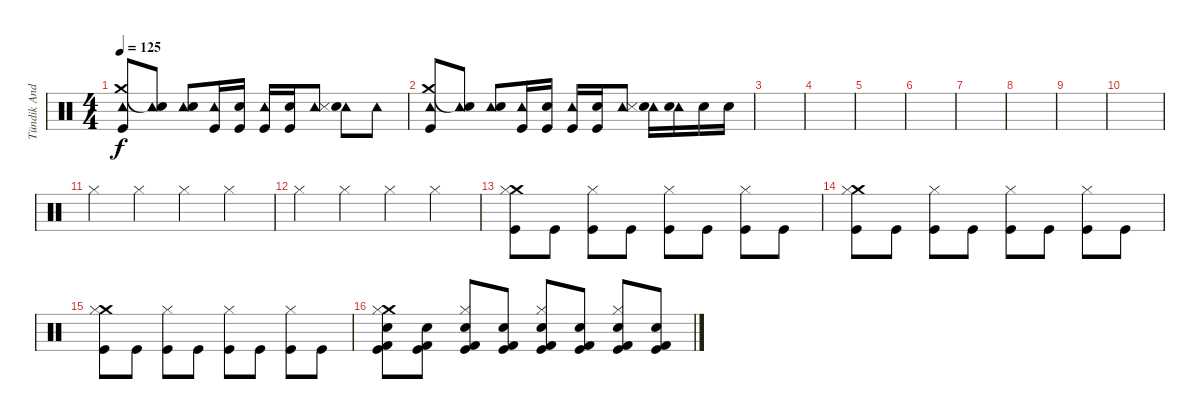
\track ("Tündik András - Dob" "Tündik And") {instrument percussion}
\staff {score}
\articulation defaults
\ts (4 4)
\tempo 125
\clef neutral
\ks c
("Tambourine (hit)" "Crash medium (hit)" "Kick (hit)").8{dy f} ("Tambourine (hit)" "Snare (hit)"{t}).8 ("Tambourine (hit)" "Snare (hit) 2").8 ("Tambourine (hit)" "Kick (hit)").16 ("Snare (hit) 2" "Kick (hit)").16 ("Tambourine (hit)" "Kick (hit)").16 ("Snare (hit) 2" "Kick (hit)").16 ("Tambourine (hit)" "Snare (side stick) 3").8 ("Tambourine (hit)" "Snare (hit) 2").8 "Tambourine (hit)".8 |
("Tambourine (hit)" "Crash medium (hit)" "Kick (hit)").8 ("Tambourine (hit)" "Snare (hit)"{t}).8 ("Tambourine (hit)" "Snare (hit) 2").8 ("Tambourine (hit)" "Kick (hit)").16 ("Snare (hit) 2" "Kick (hit)").16 ("Tambourine (hit)" "Kick (hit)").16 ("Snare (hit) 2" "Kick (hit)").16 ("Tambourine (hit)" "Snare (side stick) 3").8 ("Tambourine (hit)" "Snare (hit) 2").16 ("Tambourine (hit)" "Snare (hit) 2").16 "Snare (hit) 2".16 "Snare (hit) 2".16 |
|
|
|
|
|
|
|
|
"Hi-Hat (closed)".4 "Hi-Hat (closed)".4 "Hi-Hat (closed)".4 "Hi-Hat (closed)".4 |
"Hi-Hat (closed)".4 "Hi-Hat (closed)".4 "Hi-Hat (closed)".4 "Hi-Hat (closed)".4 |
("Crash medium (hit)" "Hi-Hat (closed)" "Kick (hit)").8 "Kick (hit)".8 ("Hi-Hat (closed)" "Kick (hit)").8 "Kick (hit)".8 ("Hi-Hat (closed)" "Kick (hit)").8 "Kick (hit)".8 ("Hi-Hat (closed)" "Kick (hit)").8 "Kick (hit)".8 |
("Crash medium (hit)" "Hi-Hat (closed)" "Kick (hit)").8 "Kick (hit)".8 ("Hi-Hat (closed)" "Kick (hit)").8 "Kick (hit)".8 ("Hi-Hat (closed)" "Kick (hit)").8 "Kick (hit)".8 ("Hi-Hat (closed)" "Kick (hit)").8 "Kick (hit)".8 |
("Crash medium (hit)" "Hi-Hat (closed)" "Kick (hit)").8 "Kick (hit)".8 ("Hi-Hat (closed)" "Kick (hit)").8 "Kick (hit)".8 ("Hi-Hat (closed)" "Kick (hit)").8 "Kick (hit)".8 ("Hi-Hat (closed)" "Kick (hit)").8 "Kick (hit)".8 |
("Crash medium (hit)" "Hi-Hat (closed)" "Snare (hit) 2" "Kick (hit) 2" "Kick (hit)").8 ("Snare (hit) 2" "Kick (hit) 2" "Kick (hit)").8 ("Hi-Hat (closed)" "Snare (hit) 2" "Kick (hit) 2" "Kick (hit)").8 ("Snare (hit) 2" "Kick (hit) 2" "Kick (hit)").8 ("Hi-Hat (closed)" "Snare (hit) 2" "Kick (hit) 2" "Kick (hit)").8 ("Snare (hit) 2" "Kick (hit) 2" "Kick (hit)").8 ("Hi-Hat (closed)" "Snare (hit) 2" "Kick (hit) 2" "Kick (hit)").8 ("Snare (hit) 2" "Kick (hit) 2" "Kick (hit)").8
